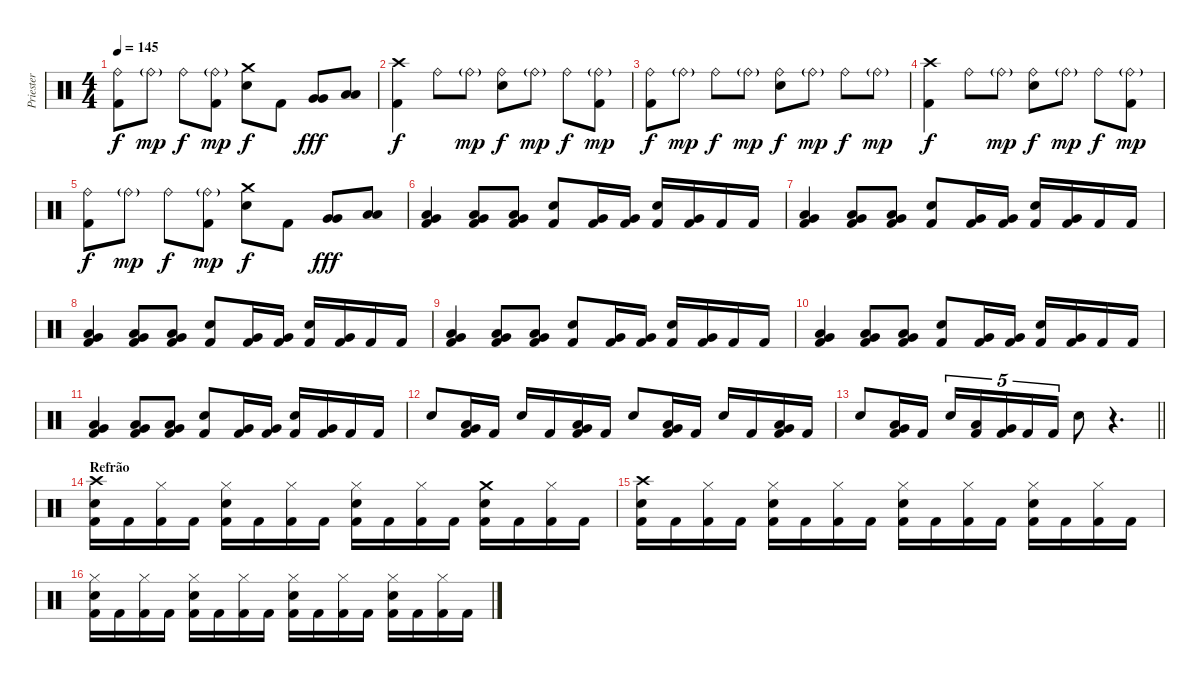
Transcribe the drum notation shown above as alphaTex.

\track ("Priester" "Priester") {instrument percussion}
\staff {score}
\articulation defaults
\ts (4 4)
\tempo 145
\clef neutral
\ks c
("Ride (bell)" "Kick (hit) 2").8{dy f} "Ride (bell)"{g}.8{dy mp} "Ride (bell)".8{dy f} ("Ride (bell)"{g} "Kick (hit) 2").8{dy mp} ("Crash medium (hit)" "Electric Snare (hit)").8{dy f} "Kick (hit) 2".8 ("Very Low Tom (hit)" "Very Low Tom (hit)").8{dy fff} ("Low Floor Tom (hit)" "Low Floor Tom (hit)").8 |
("Crash high (hit)" "Kick (hit) 2").4{dy f} "Ride (bell)".8 "Ride (bell)"{g}.8{dy mp} ("Ride (bell)" "Electric Snare (hit)").8{dy f} "Ride (bell)"{g}.8{dy mp} "Ride (bell)".8{dy f} ("Ride (bell)"{g} "Kick (hit) 2").8{dy mp} |
("Ride (bell)" "Kick (hit) 2").8{dy f} "Ride (bell)"{g}.8{dy mp} "Ride (bell)".8{dy f} "Ride (bell)"{g}.8{dy mp} ("Ride (bell)" "Electric Snare (hit)").8{dy f} "Ride (bell)"{g}.8{dy mp} "Ride (bell)".8{dy f} "Ride (bell)"{g}.8{dy mp} |
("Crash high (hit)" "Kick (hit) 2").4{dy f} "Ride (bell)".8 "Ride (bell)"{g}.8{dy mp} ("Ride (bell)" "Electric Snare (hit)").8{dy f} "Ride (bell)"{g}.8{dy mp} "Ride (bell)".8{dy f} ("Ride (bell)"{g} "Kick (hit) 2").8{dy mp} |
("Ride (bell)" "Kick (hit) 2").8{dy f} "Ride (bell)"{g}.8{dy mp} "Ride (bell)".8{dy f} ("Ride (bell)"{g} "Kick (hit) 2").8{dy mp} ("Crash medium (hit)" "Electric Snare (hit)").8{dy f} "Kick (hit) 2".8 ("Very Low Tom (hit)" "Very Low Tom (hit)").8{dy fff} ("Low Floor Tom (hit)" "Low Floor Tom (hit)").8 |
("Very Low Tom (hit)" "Low Floor Tom (hit)" "Kick (hit) 2").4 ("Very Low Tom (hit)" "Low Floor Tom (hit)" "Kick (hit) 2").8 ("Very Low Tom (hit)" "Low Floor Tom (hit)" "Kick (hit) 2").8 ("Electric Snare (hit)" "Kick (hit) 2").8 ("Very Low Tom (hit)" "Kick (hit) 2").16 ("Very Low Tom (hit)" "Kick (hit) 2").16 ("Electric Snare (hit)" "Kick (hit) 2").16 ("Very Low Tom (hit)" "Kick (hit) 2").16 "Kick (hit) 2".16 "Kick (hit) 2".16 |
("Very Low Tom (hit)" "Low Floor Tom (hit)" "Kick (hit) 2").4 ("Very Low Tom (hit)" "Low Floor Tom (hit)" "Kick (hit) 2").8 ("Very Low Tom (hit)" "Low Floor Tom (hit)" "Kick (hit) 2").8 ("Electric Snare (hit)" "Kick (hit) 2").8 ("Very Low Tom (hit)" "Kick (hit) 2").16 ("Very Low Tom (hit)" "Kick (hit) 2").16 ("Electric Snare (hit)" "Kick (hit) 2").16 ("Very Low Tom (hit)" "Kick (hit) 2").16 "Kick (hit) 2".16 "Kick (hit) 2".16 |
("Very Low Tom (hit)" "Low Floor Tom (hit)" "Kick (hit) 2").4 ("Very Low Tom (hit)" "Low Floor Tom (hit)" "Kick (hit) 2").8 ("Very Low Tom (hit)" "Low Floor Tom (hit)" "Kick (hit) 2").8 ("Electric Snare (hit)" "Kick (hit) 2").8 ("Very Low Tom (hit)" "Kick (hit) 2").16 ("Very Low Tom (hit)" "Kick (hit) 2").16 ("Electric Snare (hit)" "Kick (hit) 2").16 ("Very Low Tom (hit)" "Kick (hit) 2").16 "Kick (hit) 2".16 "Kick (hit) 2".16 |
("Very Low Tom (hit)" "Low Floor Tom (hit)" "Kick (hit) 2").4 ("Very Low Tom (hit)" "Low Floor Tom (hit)" "Kick (hit) 2").8 ("Very Low Tom (hit)" "Low Floor Tom (hit)" "Kick (hit) 2").8 ("Electric Snare (hit)" "Kick (hit) 2").8 ("Very Low Tom (hit)" "Kick (hit) 2").16 ("Very Low Tom (hit)" "Kick (hit) 2").16 ("Electric Snare (hit)" "Kick (hit) 2").16 ("Very Low Tom (hit)" "Kick (hit) 2").16 "Kick (hit) 2".16 "Kick (hit) 2".16 |
("Very Low Tom (hit)" "Low Floor Tom (hit)" "Kick (hit) 2").4 ("Very Low Tom (hit)" "Low Floor Tom (hit)" "Kick (hit) 2").8 ("Very Low Tom (hit)" "Low Floor Tom (hit)" "Kick (hit) 2").8 ("Electric Snare (hit)" "Kick (hit) 2").8 ("Very Low Tom (hit)" "Kick (hit) 2").16 ("Very Low Tom (hit)" "Kick (hit) 2").16 ("Electric Snare (hit)" "Kick (hit) 2").16 ("Very Low Tom (hit)" "Kick (hit) 2").16 "Kick (hit) 2".16 "Kick (hit) 2".16 |
("Very Low Tom (hit)" "Low Floor Tom (hit)" "Kick (hit) 2").4 ("Very Low Tom (hit)" "Low Floor Tom (hit)" "Kick (hit) 2").8 ("Very Low Tom (hit)" "Low Floor Tom (hit)" "Kick (hit) 2").8 ("Electric Snare (hit)" "Kick (hit) 2").8 ("Very Low Tom (hit)" "Kick (hit) 2").16 ("Very Low Tom (hit)" "Kick (hit) 2").16 ("Electric Snare (hit)" "Kick (hit) 2").16 ("Very Low Tom (hit)" "Kick (hit) 2").16 "Kick (hit) 2".16 "Kick (hit) 2".16 |
"Electric Snare (hit)".8 ("Very Low Tom (hit)" "Low Floor Tom (hit)" "Kick (hit) 2").16 "Kick (hit) 2".16 "Electric Snare (hit)".16 "Kick (hit) 2".16 ("Very Low Tom (hit)" "Low Floor Tom (hit)" "Kick (hit) 2").16 "Kick (hit) 2".16 "Electric Snare (hit)".8 ("Very Low Tom (hit)" "Low Floor Tom (hit)" "Kick (hit) 2").16 "Kick (hit) 2".16 "Electric Snare (hit)".16 "Kick (hit) 2".16 ("Very Low Tom (hit)" "Low Floor Tom (hit)" "Kick (hit) 2").16 "Kick (hit) 2".16 |
\barLineRight lightlight "Electric Snare (hit)".8
("Very Low Tom (hit)" "Low Floor Tom (hit)" "Kick (hit) 2").16 "Kick (hit) 2".16 "Electric Snare (hit)".16{tu (5 4)} ("Low Tom (hit)" "Kick (hit) 2").16{tu (5 4)} ("Very Low Tom (hit)" "Kick (hit) 2").16{tu (5 4)} "Kick (hit) 2".16{tu (5 4)} "Kick (hit) 2".16{tu (5 4)} "Electric Snare (hit)".8 r.4{d} |
\section ("" "Refrão")
("Crash high (hit)" "Electric Snare (hit)" "Kick (hit) 2").16 "Kick (hit) 2".16 ("Hi-Hat (closed)" "Kick (hit) 2").16 "Kick (hit) 2".16 ("Hi-Hat (closed)" "Electric Snare (hit)" "Kick (hit) 2").16 "Kick (hit) 2".16 ("Hi-Hat (closed)" "Kick (hit) 2").16 "Kick (hit) 2".16 ("Hi-Hat (closed)" "Electric Snare (hit)" "Kick (hit) 2").16 "Kick (hit) 2".16 ("Hi-Hat (closed)" "Kick (hit) 2").16 "Kick (hit) 2".16 ("Crash medium (hit)" "Electric Snare (hit)" "Kick (hit) 2").16 "Kick (hit) 2".16 ("Hi-Hat (closed)" "Kick (hit) 2").16 "Kick (hit) 2".16 |
("Crash high (hit)" "Electric Snare (hit)" "Kick (hit) 2").16 "Kick (hit) 2".16 ("Hi-Hat (closed)" "Kick (hit) 2").16 "Kick (hit) 2".16 ("Hi-Hat (closed)" "Electric Snare (hit)" "Kick (hit) 2").16 "Kick (hit) 2".16 ("Hi-Hat (closed)" "Kick (hit) 2").16 "Kick (hit) 2".16 ("Hi-Hat (closed)" "Electric Snare (hit)" "Kick (hit) 2").16 "Kick (hit) 2".16 ("Hi-Hat (closed)" "Kick (hit) 2").16 "Kick (hit) 2".16 ("Hi-Hat (closed)" "Electric Snare (hit)" "Kick (hit) 2").16 "Kick (hit) 2".16 ("Hi-Hat (closed)" "Kick (hit) 2").16 "Kick (hit) 2".16 |
("Hi-Hat (closed)" "Electric Snare (hit)" "Kick (hit) 2").16 "Kick (hit) 2".16 ("Hi-Hat (closed)" "Kick (hit) 2").16 "Kick (hit) 2".16 ("Hi-Hat (closed)" "Electric Snare (hit)" "Kick (hit) 2").16 "Kick (hit) 2".16 ("Hi-Hat (closed)" "Kick (hit) 2").16 "Kick (hit) 2".16 ("Hi-Hat (closed)" "Electric Snare (hit)" "Kick (hit) 2").16 "Kick (hit) 2".16 ("Hi-Hat (closed)" "Kick (hit) 2").16 "Kick (hit) 2".16 ("Hi-Hat (closed)" "Electric Snare (hit)" "Kick (hit) 2").16 "Kick (hit) 2".16 ("Hi-Hat (closed)" "Kick (hit) 2").16 "Kick (hit) 2".16
